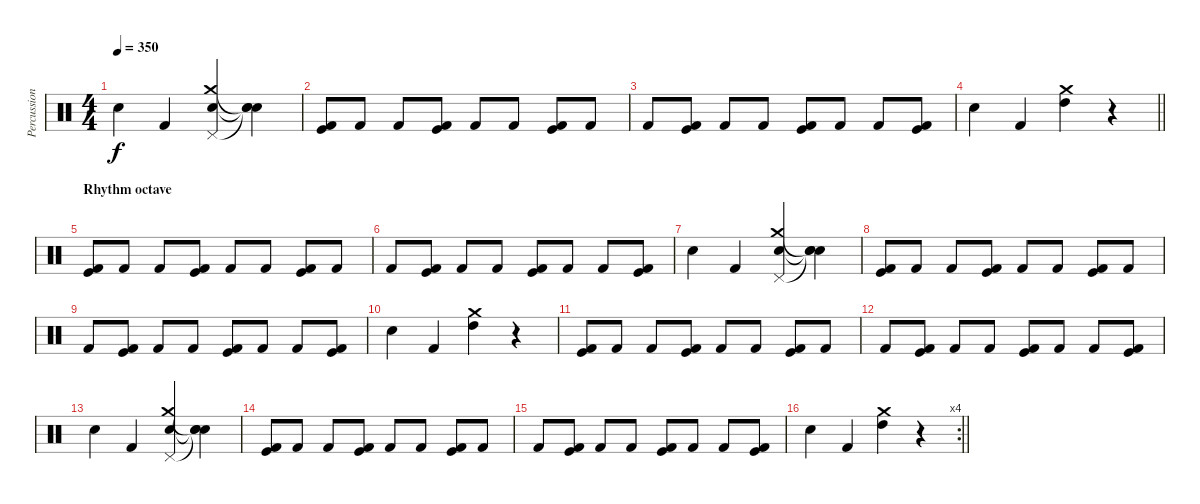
\track ("Percussion" "Percussion") {instrument percussion}
\staff {score}
\articulation defaults
\ts (4 4)
\tempo 350
\clef neutral
\ks c "Snare (hit) 2".4{dy f} "Kick (hit) 2".4
("Crash medium (hit)" "Pedal Hi-Hat (hit)" "Snare (hit) 2").4 ("Snare (hit)"{t} "Snare (hit)"{t} "Snare (hit)"{t}).4 |
("Kick (hit)" "Kick (hit) 2").8 "Kick (hit) 2".8 "Kick (hit) 2".8 ("Kick (hit)" "Kick (hit) 2").8 "Kick (hit) 2".8 "Kick (hit) 2".8 ("Kick (hit)" "Kick (hit) 2").8 "Kick (hit) 2".8 |
"Kick (hit) 2".8 ("Kick (hit)" "Kick (hit) 2").8 "Kick (hit) 2".8 "Kick (hit) 2".8 ("Kick (hit)" "Kick (hit) 2").8 "Kick (hit) 2".8 "Kick (hit) 2".8 ("Kick (hit)" "Kick (hit) 2").8 |
\barLineRight lightlight "Snare (hit) 2".4 "Kick (hit) 2".4
("Crash medium (hit)" "High Tom (hit)").4 r.4 |
\section ("" "Rhythm octave")
("Kick (hit)" "Kick (hit) 2").8 "Kick (hit) 2".8 "Kick (hit) 2".8 ("Kick (hit)" "Kick (hit) 2").8 "Kick (hit) 2".8 "Kick (hit) 2".8 ("Kick (hit)" "Kick (hit) 2").8 "Kick (hit) 2".8 |
"Kick (hit) 2".8 ("Kick (hit)" "Kick (hit) 2").8 "Kick (hit) 2".8 "Kick (hit) 2".8 ("Kick (hit)" "Kick (hit) 2").8 "Kick (hit) 2".8 "Kick (hit) 2".8 ("Kick (hit)" "Kick (hit) 2").8 |
"Snare (hit) 2".4 "Kick (hit) 2".4 ("Crash medium (hit)" "Pedal Hi-Hat (hit)" "Snare (hit) 2").4 ("Snare (hit)"{t} "Snare (hit)"{t} "Snare (hit)"{t}).4 |
("Kick (hit)" "Kick (hit) 2").8 "Kick (hit) 2".8 "Kick (hit) 2".8 ("Kick (hit)" "Kick (hit) 2").8 "Kick (hit) 2".8 "Kick (hit) 2".8 ("Kick (hit)" "Kick (hit) 2").8 "Kick (hit) 2".8 |
"Kick (hit) 2".8 ("Kick (hit)" "Kick (hit) 2").8 "Kick (hit) 2".8 "Kick (hit) 2".8 ("Kick (hit)" "Kick (hit) 2").8 "Kick (hit) 2".8 "Kick (hit) 2".8 ("Kick (hit)" "Kick (hit) 2").8 |
"Snare (hit) 2".4 "Kick (hit) 2".4 ("Crash medium (hit)" "High Tom (hit)").4 r.4 |
("Kick (hit)" "Kick (hit) 2").8 "Kick (hit) 2".8 "Kick (hit) 2".8 ("Kick (hit)" "Kick (hit) 2").8 "Kick (hit) 2".8 "Kick (hit) 2".8 ("Kick (hit)" "Kick (hit) 2").8 "Kick (hit) 2".8 |
"Kick (hit) 2".8 ("Kick (hit)" "Kick (hit) 2").8 "Kick (hit) 2".8 "Kick (hit) 2".8 ("Kick (hit)" "Kick (hit) 2").8 "Kick (hit) 2".8 "Kick (hit) 2".8 ("Kick (hit)" "Kick (hit) 2").8 |
"Snare (hit) 2".4 "Kick (hit) 2".4 ("Crash medium (hit)" "Pedal Hi-Hat (hit)" "Snare (hit) 2").4 ("Snare (hit)"{t} "Snare (hit)"{t} "Snare (hit)"{t}).4 |
("Kick (hit)" "Kick (hit) 2").8 "Kick (hit) 2".8 "Kick (hit) 2".8 ("Kick (hit)" "Kick (hit) 2").8 "Kick (hit) 2".8 "Kick (hit) 2".8 ("Kick (hit)" "Kick (hit) 2").8 "Kick (hit) 2".8 |
"Kick (hit) 2".8 ("Kick (hit)" "Kick (hit) 2").8 "Kick (hit) 2".8 "Kick (hit) 2".8 ("Kick (hit)" "Kick (hit) 2").8 "Kick (hit) 2".8 "Kick (hit) 2".8 ("Kick (hit)" "Kick (hit) 2").8 |
\rc 4
\barLineRight lightlight "Snare (hit) 2".4 "Kick (hit) 2".4
("Crash medium (hit)" "High Tom (hit)").4 r.4
